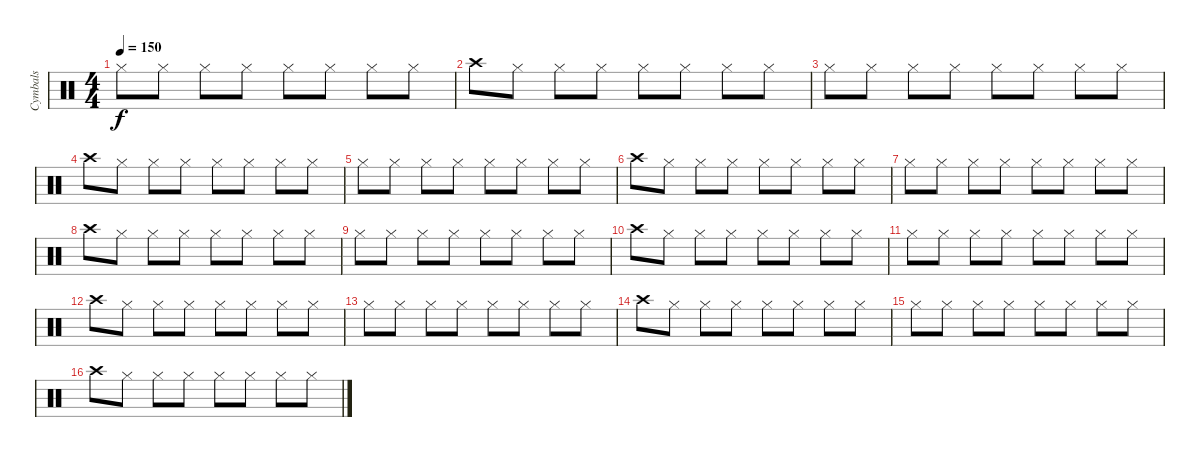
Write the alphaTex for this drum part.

\track ("Cymbals" "Cymbals") {instrument percussion}
\staff {score}
\articulation defaults
\ts (4 4)
\tempo 150
\clef neutral
\ks c "Hi-Hat (closed)".8{dy f} "Hi-Hat (closed)".8 "Hi-Hat (closed)".8 "Hi-Hat (closed)".8 "Hi-Hat (closed)".8 "Hi-Hat (closed)".8 "Hi-Hat (closed)".8 "Hi-Hat (closed)".8
|
"Crash high (hit)".8 "Hi-Hat (closed)".8 "Hi-Hat (closed)".8 "Hi-Hat (closed)".8 "Hi-Hat (closed)".8 "Hi-Hat (closed)".8 "Hi-Hat (closed)".8 "Hi-Hat (closed)".8 |
"Hi-Hat (closed)".8 "Hi-Hat (closed)".8 "Hi-Hat (closed)".8 "Hi-Hat (closed)".8 "Hi-Hat (closed)".8 "Hi-Hat (closed)".8 "Hi-Hat (closed)".8 "Hi-Hat (closed)".8 |
"Crash high (hit)".8 "Hi-Hat (closed)".8 "Hi-Hat (closed)".8 "Hi-Hat (closed)".8 "Hi-Hat (closed)".8 "Hi-Hat (closed)".8 "Hi-Hat (closed)".8 "Hi-Hat (closed)".8 |
"Hi-Hat (closed)".8 "Hi-Hat (closed)".8 "Hi-Hat (closed)".8 "Hi-Hat (closed)".8 "Hi-Hat (closed)".8 "Hi-Hat (closed)".8 "Hi-Hat (closed)".8 "Hi-Hat (closed)".8 |
"Crash high (hit)".8 "Hi-Hat (closed)".8 "Hi-Hat (closed)".8 "Hi-Hat (closed)".8 "Hi-Hat (closed)".8 "Hi-Hat (closed)".8 "Hi-Hat (closed)".8 "Hi-Hat (closed)".8 |
"Hi-Hat (closed)".8 "Hi-Hat (closed)".8 "Hi-Hat (closed)".8 "Hi-Hat (closed)".8 "Hi-Hat (closed)".8 "Hi-Hat (closed)".8 "Hi-Hat (closed)".8 "Hi-Hat (closed)".8 |
"Crash high (hit)".8 "Hi-Hat (closed)".8 "Hi-Hat (closed)".8 "Hi-Hat (closed)".8 "Hi-Hat (closed)".8 "Hi-Hat (closed)".8 "Hi-Hat (closed)".8 "Hi-Hat (closed)".8 |
"Hi-Hat (closed)".8 "Hi-Hat (closed)".8 "Hi-Hat (closed)".8 "Hi-Hat (closed)".8 "Hi-Hat (closed)".8 "Hi-Hat (closed)".8 "Hi-Hat (closed)".8 "Hi-Hat (closed)".8 |
"Crash high (hit)".8 "Hi-Hat (closed)".8 "Hi-Hat (closed)".8 "Hi-Hat (closed)".8 "Hi-Hat (closed)".8 "Hi-Hat (closed)".8 "Hi-Hat (closed)".8 "Hi-Hat (closed)".8 |
"Hi-Hat (closed)".8 "Hi-Hat (closed)".8 "Hi-Hat (closed)".8 "Hi-Hat (closed)".8 "Hi-Hat (closed)".8 "Hi-Hat (closed)".8 "Hi-Hat (closed)".8 "Hi-Hat (closed)".8 |
"Crash high (hit)".8 "Hi-Hat (closed)".8 "Hi-Hat (closed)".8 "Hi-Hat (closed)".8 "Hi-Hat (closed)".8 "Hi-Hat (closed)".8 "Hi-Hat (closed)".8 "Hi-Hat (closed)".8 |
"Hi-Hat (closed)".8 "Hi-Hat (closed)".8 "Hi-Hat (closed)".8 "Hi-Hat (closed)".8 "Hi-Hat (closed)".8 "Hi-Hat (closed)".8 "Hi-Hat (closed)".8 "Hi-Hat (closed)".8 |
"Crash high (hit)".8 "Hi-Hat (closed)".8 "Hi-Hat (closed)".8 "Hi-Hat (closed)".8 "Hi-Hat (closed)".8 "Hi-Hat (closed)".8 "Hi-Hat (closed)".8 "Hi-Hat (closed)".8 |
"Hi-Hat (closed)".8 "Hi-Hat (closed)".8 "Hi-Hat (closed)".8 "Hi-Hat (closed)".8 "Hi-Hat (closed)".8 "Hi-Hat (closed)".8 "Hi-Hat (closed)".8 "Hi-Hat (closed)".8 |
"Crash high (hit)".8 "Hi-Hat (closed)".8 "Hi-Hat (closed)".8 "Hi-Hat (closed)".8 "Hi-Hat (closed)".8 "Hi-Hat (closed)".8 "Hi-Hat (closed)".8 "Hi-Hat (closed)".8
